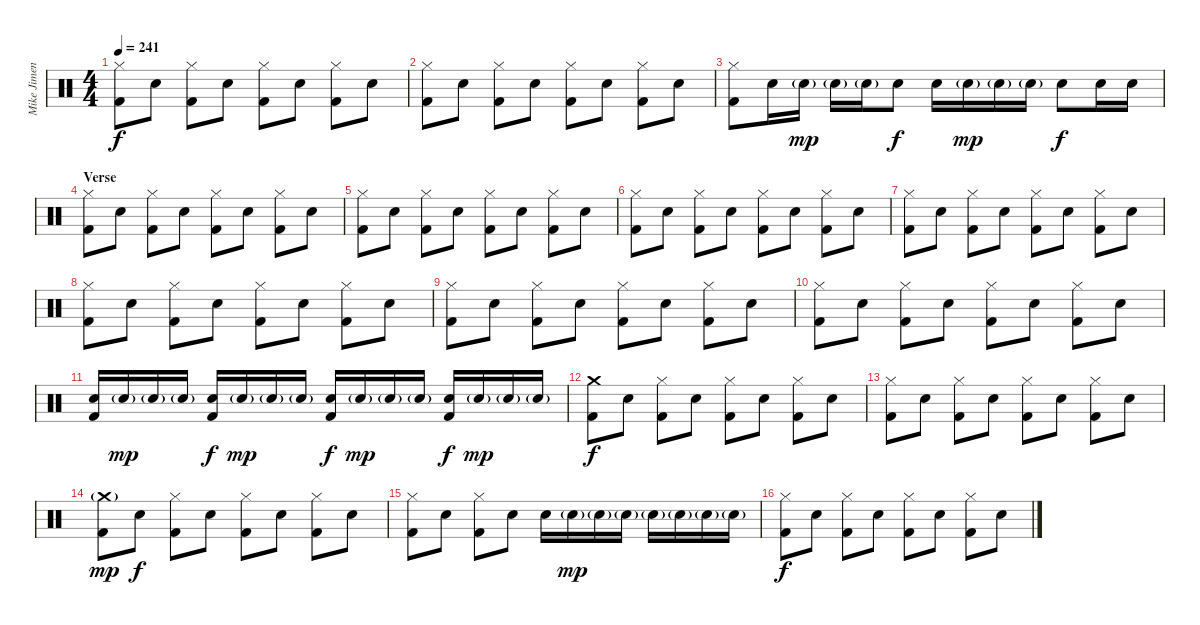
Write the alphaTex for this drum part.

\track ("Mike Jimenez" "Mike Jimen") {instrument percussion}
\staff {score}
\articulation defaults
\ts (4 4)
\tempo 241
\clef neutral
\ks c
("Hi-Hat (closed)" "Kick (hit) 2").8{dy f} "Electric Snare (hit)".8 ("Hi-Hat (closed)" "Kick (hit) 2").8 "Electric Snare (hit)".8 ("Hi-Hat (closed)" "Kick (hit) 2").8 "Electric Snare (hit)".8 ("Hi-Hat (closed)" "Kick (hit) 2").8 "Electric Snare (hit)".8 |
("Hi-Hat (closed)" "Kick (hit) 2").8 "Electric Snare (hit)".8 ("Hi-Hat (closed)" "Kick (hit) 2").8 "Electric Snare (hit)".8 ("Hi-Hat (closed)" "Kick (hit) 2").8 "Electric Snare (hit)".8 ("Hi-Hat (closed)" "Kick (hit) 2").8 "Electric Snare (hit)".8 |
("Hi-Hat (closed)" "Kick (hit) 2").8 "Electric Snare (hit)".16 "Electric Snare (hit)"{g}.16{dy mp} "Electric Snare (hit)"{g}.16 "Electric Snare (hit)"{g}.16 "Electric Snare (hit)".8{dy f} "Electric Snare (hit)".16 "Electric Snare (hit)"{g}.16{dy mp} "Electric Snare (hit)"{g}.16 "Electric Snare (hit)"{g}.16 "Electric Snare (hit)".8{dy f} "Electric Snare (hit)".16 "Electric Snare (hit)".16 |
\section ("" "Verse")
("Hi-Hat (closed)" "Kick (hit) 2").8 "Electric Snare (hit)".8 ("Hi-Hat (closed)" "Kick (hit) 2").8 "Electric Snare (hit)".8 ("Hi-Hat (closed)" "Kick (hit) 2").8 "Electric Snare (hit)".8 ("Hi-Hat (closed)" "Kick (hit) 2").8 "Electric Snare (hit)".8 |
("Hi-Hat (closed)" "Kick (hit) 2").8 "Electric Snare (hit)".8 ("Hi-Hat (closed)" "Kick (hit) 2").8 "Electric Snare (hit)".8 ("Hi-Hat (closed)" "Kick (hit) 2").8 "Electric Snare (hit)".8 ("Hi-Hat (closed)" "Kick (hit) 2").8 "Electric Snare (hit)".8 |
("Hi-Hat (closed)" "Kick (hit) 2").8 "Electric Snare (hit)".8 ("Hi-Hat (closed)" "Kick (hit) 2").8 "Electric Snare (hit)".8 ("Hi-Hat (closed)" "Kick (hit) 2").8 "Electric Snare (hit)".8 ("Hi-Hat (closed)" "Kick (hit) 2").8 "Electric Snare (hit)".8 |
("Hi-Hat (closed)" "Kick (hit) 2").8 "Electric Snare (hit)".8 ("Hi-Hat (closed)" "Kick (hit) 2").8 "Electric Snare (hit)".8 ("Hi-Hat (closed)" "Kick (hit) 2").8 "Electric Snare (hit)".8 ("Hi-Hat (closed)" "Kick (hit) 2").8 "Electric Snare (hit)".8 |
("Hi-Hat (closed)" "Kick (hit) 2").8 "Electric Snare (hit)".8 ("Hi-Hat (closed)" "Kick (hit) 2").8 "Electric Snare (hit)".8 ("Hi-Hat (closed)" "Kick (hit) 2").8 "Electric Snare (hit)".8 ("Hi-Hat (closed)" "Kick (hit) 2").8 "Electric Snare (hit)".8 |
("Hi-Hat (closed)" "Kick (hit) 2").8 "Electric Snare (hit)".8 ("Hi-Hat (closed)" "Kick (hit) 2").8 "Electric Snare (hit)".8 ("Hi-Hat (closed)" "Kick (hit) 2").8 "Electric Snare (hit)".8 ("Hi-Hat (closed)" "Kick (hit) 2").8 "Electric Snare (hit)".8 |
("Hi-Hat (closed)" "Kick (hit) 2").8 "Electric Snare (hit)".8 ("Hi-Hat (closed)" "Kick (hit) 2").8 "Electric Snare (hit)".8 ("Hi-Hat (closed)" "Kick (hit) 2").8 "Electric Snare (hit)".8 ("Hi-Hat (closed)" "Kick (hit) 2").8 "Electric Snare (hit)".8 |
("Electric Snare (hit)" "Kick (hit) 2").16 "Electric Snare (hit)"{g}.16{dy mp} "Electric Snare (hit)"{g}.16 "Electric Snare (hit)"{g}.16 ("Electric Snare (hit)" "Kick (hit) 2").16{dy f} "Electric Snare (hit)"{g}.16{dy mp} "Electric Snare (hit)"{g}.16 "Electric Snare (hit)"{g}.16 ("Electric Snare (hit)" "Kick (hit) 2").16{dy f} "Electric Snare (hit)"{g}.16{dy mp} "Electric Snare (hit)"{g}.16 "Electric Snare (hit)"{g}.16 ("Electric Snare (hit)" "Kick (hit) 2").16{dy f} "Electric Snare (hit)"{g}.16{dy mp} "Electric Snare (hit)"{g}.16 "Electric Snare (hit)"{g}.16 |
("Crash medium (hit)" "Kick (hit) 2").8{dy f} "Electric Snare (hit)".8 ("Hi-Hat (closed)" "Kick (hit) 2").8 "Electric Snare (hit)".8 ("Hi-Hat (closed)" "Kick (hit) 2").8 "Electric Snare (hit)".8 ("Hi-Hat (closed)" "Kick (hit) 2").8 "Electric Snare (hit)".8 |
("Hi-Hat (closed)" "Kick (hit) 2").8 "Electric Snare (hit)".8 ("Hi-Hat (closed)" "Kick (hit) 2").8 "Electric Snare (hit)".8 ("Hi-Hat (closed)" "Kick (hit) 2").8 "Electric Snare (hit)".8 ("Hi-Hat (closed)" "Kick (hit) 2").8 "Electric Snare (hit)".8 |
("Crash medium (hit)"{g} "Kick (hit) 2").8{dy mp} "Electric Snare (hit)".8{dy f} ("Hi-Hat (closed)" "Kick (hit) 2").8 "Electric Snare (hit)".8 ("Hi-Hat (closed)" "Kick (hit) 2").8 "Electric Snare (hit)".8 ("Hi-Hat (closed)" "Kick (hit) 2").8 "Electric Snare (hit)".8 |
("Hi-Hat (closed)" "Kick (hit) 2").8 "Electric Snare (hit)".8 ("Hi-Hat (closed)" "Kick (hit) 2").8 "Electric Snare (hit)".8 "Electric Snare (hit)".16 "Electric Snare (hit)"{g}.16{dy mp} "Electric Snare (hit)"{g}.16 "Electric Snare (hit)"{g}.16 "Electric Snare (hit)"{g}.16 "Electric Snare (hit)"{g}.16 "Electric Snare (hit)"{g}.16 "Electric Snare (hit)"{g}.16 |
("Hi-Hat (closed)" "Kick (hit) 2").8{dy f} "Electric Snare (hit)".8 ("Hi-Hat (closed)" "Kick (hit) 2").8 "Electric Snare (hit)".8 ("Hi-Hat (closed)" "Kick (hit) 2").8 "Electric Snare (hit)".8 ("Hi-Hat (closed)" "Kick (hit) 2").8 "Electric Snare (hit)".8
